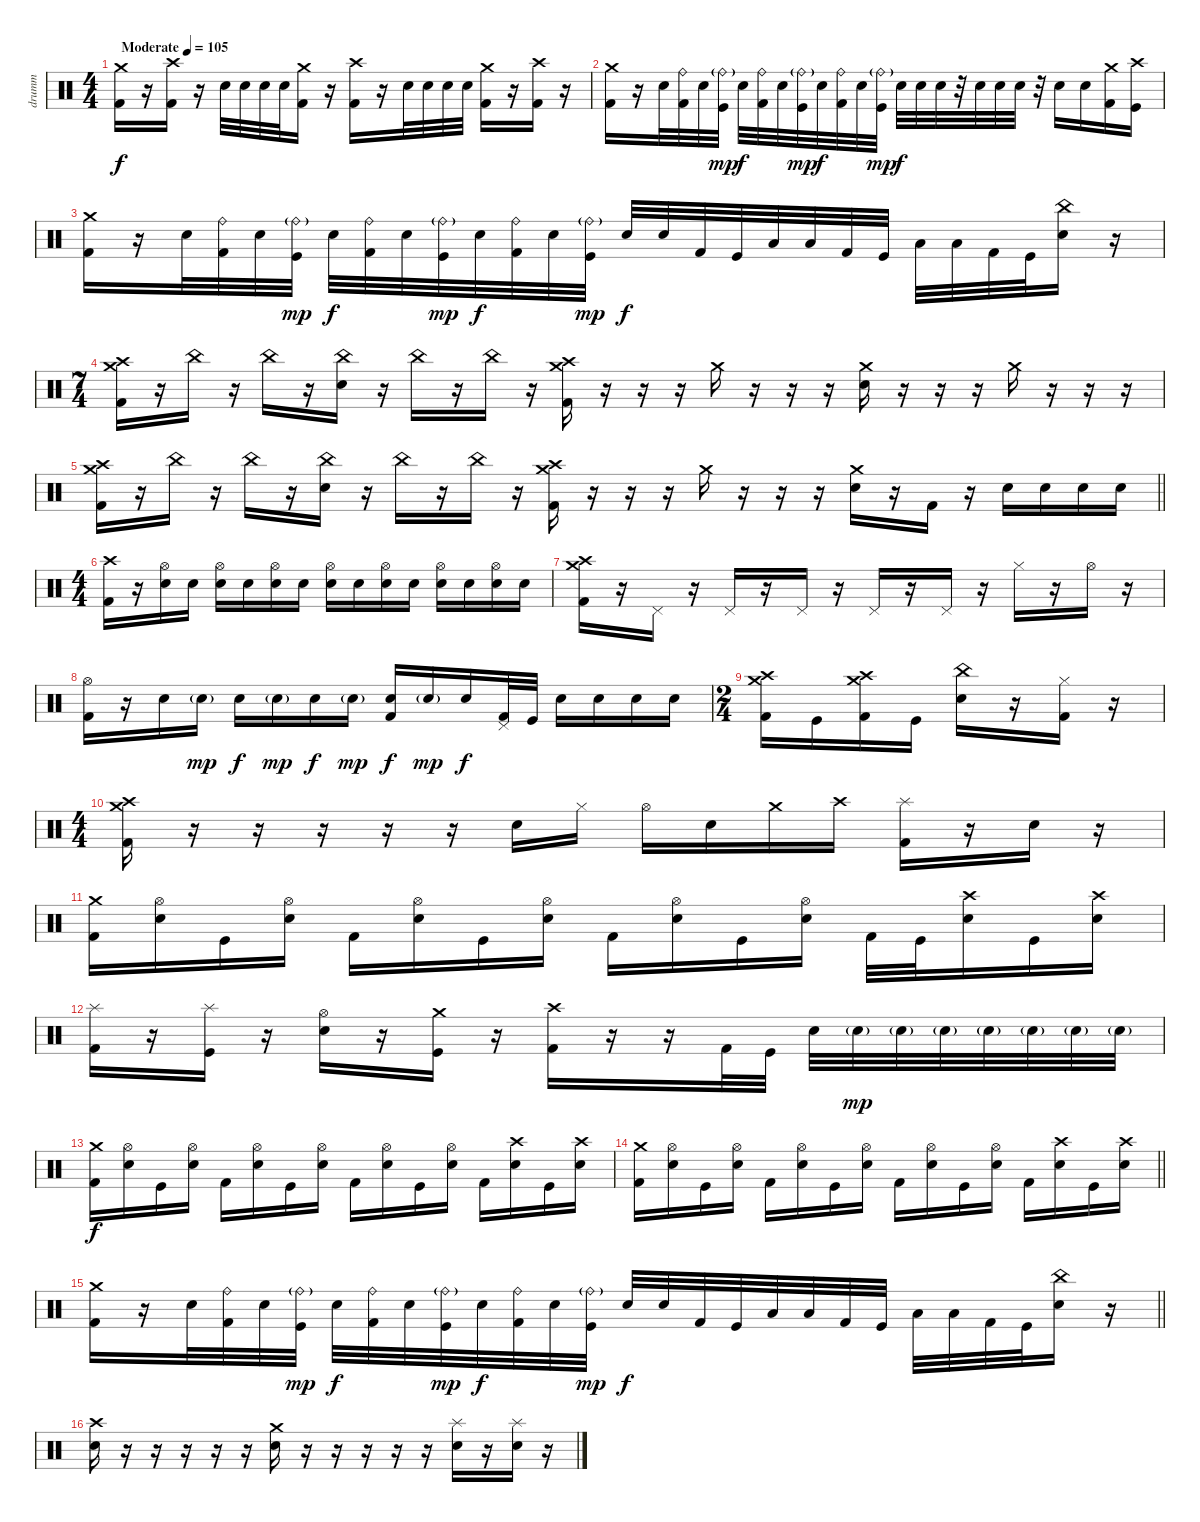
\track ("drumm" "drumm") {instrument percussion}
\staff
\articulation defaults
\ts (4 4)
\tempo (105 "Moderate")
\clef neutral
\ks c
("Kick (hit) 2" "Crash medium (hit)").16{dy f} r.16 ("Kick (hit) 2" "Crash high (hit)").16 r.16 "Electric Snare (hit)".32 "Electric Snare (hit)".32 "Electric Snare (hit)".32 "Electric Snare (hit)".32 ("Kick (hit) 2" "Crash medium (hit)").16 r.16 ("Kick (hit) 2" "Crash high (hit)").16 r.16 "Electric Snare (hit)".32 "Electric Snare (hit)".32 "Electric Snare (hit)".32 "Electric Snare (hit)".32 ("Kick (hit) 2" "Crash medium (hit)").16 r.16 ("Kick (hit) 2" "Crash high (hit)").16 r.16 |
("Kick (hit) 2" "Crash medium (hit)").16 r.16 "Electric Snare (hit)".32 ("Kick (hit) 2" "Ride (bell)").32 "Electric Snare (hit)".32 ("Kick (hit)" "Ride (bell)"{g}).32{dy mp} "Electric Snare (hit)".32{dy f} ("Kick (hit) 2" "Ride (bell)").32 "Electric Snare (hit)".32 ("Kick (hit)" "Ride (bell)"{g}).32{dy mp} "Electric Snare (hit)".32{dy f} ("Kick (hit) 2" "Ride (bell)").32 "Electric Snare (hit)".32 ("Kick (hit)" "Ride (bell)"{g}).32{dy mp} "Electric Snare (hit)".32{dy f} "Electric Snare (hit)".32 "Electric Snare (hit)".32 r.32 "Electric Snare (hit)".32 "Electric Snare (hit)".32 "Electric Snare (hit)".32 r.32 "Electric Snare (hit)".16 "Electric Snare (hit)".16 ("Kick (hit) 2" "Crash medium (hit)").16 ("Kick (hit)" "Crash high (hit)").16 |
("Kick (hit) 2" "Crash medium (hit)").16 r.16 "Electric Snare (hit)".32 ("Kick (hit) 2" "Ride (bell)").32 "Electric Snare (hit)".32 ("Kick (hit)" "Ride (bell)"{g}).32{dy mp} "Electric Snare (hit)".32{dy f} ("Kick (hit) 2" "Ride (bell)").32 "Electric Snare (hit)".32 ("Kick (hit)" "Ride (bell)"{g}).32{dy mp} "Electric Snare (hit)".32{dy f} ("Kick (hit) 2" "Ride (bell)").32 "Electric Snare (hit)".32 ("Kick (hit)" "Ride (bell)"{g}).32{dy mp} "Electric Snare (hit)".32{dy f} "Electric Snare (hit)".32 "Kick (hit) 2".32 "Kick (hit)".32 "Low Tom (hit)".32 "Low Tom (hit)".32 "Kick (hit) 2".32 "Kick (hit)".32 "Low Floor Tom (hit)".32 "Low Floor Tom (hit)".32 "Kick (hit) 2".32 "Kick (hit)".32 ("Electric Snare (hit)" "China (hit)").16 r.16 |
\ts (7 4)
("Kick (hit) 2" "Crash medium (hit)" "Crash high (hit)").16 r.16 "China (hit)".16 r.16 "China (hit)".16 r.16 ("Electric Snare (hit)" "China (hit)").16 r.16 "China (hit)".16 r.16 "China (hit)".16 r.16 ("Kick (hit) 2" "Crash medium (hit)" "Crash high (hit)").16 r.16 r.16 r.16 "Crash medium (hit)".16 r.16 r.16 r.16 ("Electric Snare (hit)" "Crash medium (hit)").16 r.16 r.16 r.16 "Crash medium (hit)".16 r.16 r.16 r.16 |
\barLineRight lightlight
("Kick (hit) 2" "Crash medium (hit)" "Crash high (hit)").16 r.16 "China (hit)".16 r.16 "China (hit)".16 r.16 ("Electric Snare (hit)" "China (hit)").16 r.16 "China (hit)".16 r.16 "China (hit)".16 r.16 ("Kick (hit) 2" "Crash medium (hit)" "Crash high (hit)").16 r.16 r.16 r.16 "Crash medium (hit)".16 r.16 r.16 r.16 ("Electric Snare (hit)" "Crash medium (hit)").16 r.16 "Kick (hit) 2".16 r.16 "Electric Snare (hit)".16 "Electric Snare (hit)".16 "Electric Snare (hit)".16 "Electric Snare (hit)".16 |
\ts (4 4)
\section ("" "")
("Kick (hit) 2" "Crash high (hit)").16 r.16 ("Electric Snare (hit)" "Hi-Hat (open)").16 "Electric Snare (hit)".16 ("Electric Snare (hit)" "Hi-Hat (open)").16 "Electric Snare (hit)".16 ("Electric Snare (hit)" "Hi-Hat (open)").16 "Electric Snare (hit)".16 ("Electric Snare (hit)" "Hi-Hat (open)").16 "Electric Snare (hit)".16 ("Electric Snare (hit)" "Hi-Hat (open)").16 "Electric Snare (hit)".16 ("Electric Snare (hit)" "Hi-Hat (open)").16 "Electric Snare (hit)".16 ("Electric Snare (hit)" "Hi-Hat (open)").16 "Electric Snare (hit)".16 |
("Kick (hit) 2" "Crash medium (hit)" "Crash high (hit)").16 r.16 "Pedal Hi-Hat (hit)".16 r.16 "Pedal Hi-Hat (hit)".16 r.16 "Pedal Hi-Hat (hit)".16 r.16 "Pedal Hi-Hat (hit)".16 r.16 "Pedal Hi-Hat (hit)".16 r.16 "Hi-Hat (closed)".16 r.16 "Hi-Hat (open)".16 r.16 |
("Kick (hit) 2" "Hi-Hat (open)").16 r.16 "Electric Snare (hit)".16 "Electric Snare (hit)"{g}.16{dy mp} "Electric Snare (hit)".16{dy f} "Electric Snare (hit)"{g}.16{dy mp} "Electric Snare (hit)".16{dy f} "Electric Snare (hit)"{g}.16{dy mp} ("Electric Snare (hit)" "Kick (hit) 2").16{dy f} "Electric Snare (hit)"{g}.16{dy mp} "Electric Snare (hit)".16{dy f} ("Kick (hit) 2" "Pedal Hi-Hat (hit)").32 "Kick (hit)".32 "Electric Snare (hit)".16 "Electric Snare (hit)".16 "Electric Snare (hit)".16 "Electric Snare (hit)".16 |
\ts (2 4)
("Kick (hit) 2" "Crash medium (hit)" "Crash high (hit)").16 "Kick (hit)".16 ("Kick (hit) 2" "Crash medium (hit)" "Crash high (hit)").16 "Kick (hit)".16 ("Electric Snare (hit)" "China (hit)").16 r.16 ("Kick (hit) 2" "Hi-Hat (closed)").16 r.16 |
\ts (4 4)
("Kick (hit) 2" "Crash medium (hit)" "Crash high (hit)").16 r.16 r.16 r.16 r.16 r.16 "Electric Snare (hit)".16 "Hi-Hat (closed)".16 "Hi-Hat (open)".16 "Electric Snare (hit)".16 "Crash medium (hit)".16 "Crash high (hit)".16 ("Kick (hit) 2" "Splash (hit)").16 r.16 "Electric Snare (hit)".16 r.16 |
("Kick (hit) 2" "Crash medium (hit)").16 ("Electric Snare (hit)" "Hi-Hat (open)").16 "Kick (hit)".16 ("Electric Snare (hit)" "Hi-Hat (open)").16 "Kick (hit) 2".16 ("Electric Snare (hit)" "Hi-Hat (open)").16 "Kick (hit)".16 ("Electric Snare (hit)" "Hi-Hat (open)").16 "Kick (hit) 2".16 ("Electric Snare (hit)" "Hi-Hat (open)").16 "Kick (hit)".16 ("Electric Snare (hit)" "Hi-Hat (open)").16 "Kick (hit) 2".32 "Kick (hit)".32 ("Electric Snare (hit)" "Crash high (hit)").16 "Kick (hit)".16 ("Electric Snare (hit)" "Crash high (hit)").16 |
("Kick (hit) 2" "Splash (hit)").16 r.16 ("Kick (hit)" "Splash (hit)").16 r.16 ("Electric Snare (hit)" "Hi-Hat (open)").16 r.16 ("Kick (hit)" "Crash medium (hit)").16 r.16 ("Kick (hit) 2" "Crash high (hit)").16 r.16 r.16 "Kick (hit) 2".32 "Kick (hit)".32 "Electric Snare (hit)".32 "Electric Snare (hit)"{g}.32{dy mp} "Electric Snare (hit)"{g}.32 "Electric Snare (hit)"{g}.32 "Electric Snare (hit)"{g}.32 "Electric Snare (hit)"{g}.32 "Electric Snare (hit)"{g}.32 "Electric Snare (hit)"{g}.32 |
("Kick (hit) 2" "Crash medium (hit)").16{dy f} ("Electric Snare (hit)" "Hi-Hat (open)").16 "Kick (hit)".16 ("Electric Snare (hit)" "Hi-Hat (open)").16 "Kick (hit) 2".16 ("Electric Snare (hit)" "Hi-Hat (open)").16 "Kick (hit)".16 ("Electric Snare (hit)" "Hi-Hat (open)").16 "Kick (hit) 2".16 ("Electric Snare (hit)" "Hi-Hat (open)").16 "Kick (hit)".16 ("Electric Snare (hit)" "Hi-Hat (open)").16 "Kick (hit) 2".16 ("Electric Snare (hit)" "Crash high (hit)").16 "Kick (hit)".16 ("Electric Snare (hit)" "Crash high (hit)").16 |
\barLineRight lightlight
("Kick (hit) 2" "Crash medium (hit)").16 ("Electric Snare (hit)" "Hi-Hat (open)").16 "Kick (hit)".16 ("Electric Snare (hit)" "Hi-Hat (open)").16 "Kick (hit) 2".16 ("Electric Snare (hit)" "Hi-Hat (open)").16 "Kick (hit)".16 ("Electric Snare (hit)" "Hi-Hat (open)").16 "Kick (hit) 2".16 ("Electric Snare (hit)" "Hi-Hat (open)").16 "Kick (hit)".16 ("Electric Snare (hit)" "Hi-Hat (open)").16 "Kick (hit) 2".16 ("Electric Snare (hit)" "Crash high (hit)").16 "Kick (hit)".16 ("Electric Snare (hit)" "Crash high (hit)").16 |
\section ("" "")
\barLineRight lightlight
("Kick (hit) 2" "Crash medium (hit)").16 r.16 "Electric Snare (hit)".32 ("Kick (hit) 2" "Ride (bell)").32 "Electric Snare (hit)".32 ("Kick (hit)" "Ride (bell)"{g}).32{dy mp} "Electric Snare (hit)".32{dy f} ("Kick (hit) 2" "Ride (bell)").32 "Electric Snare (hit)".32 ("Kick (hit)" "Ride (bell)"{g}).32{dy mp} "Electric Snare (hit)".32{dy f} ("Kick (hit) 2" "Ride (bell)").32 "Electric Snare (hit)".32 ("Kick (hit)" "Ride (bell)"{g}).32{dy mp} "Electric Snare (hit)".32{dy f} "Electric Snare (hit)".32 "Kick (hit) 2".32 "Kick (hit)".32 "Low Tom (hit)".32 "Low Tom (hit)".32 "Kick (hit) 2".32 "Kick (hit)".32 "Low Floor Tom (hit)".32 "Low Floor Tom (hit)".32 "Kick (hit) 2".32 "Kick (hit)".32 ("Electric Snare (hit)" "China (hit)").16 r.16 |
("Electric Snare (hit)" "Crash high (hit)").16 r.16 r.16 r.16 r.16 r.16 ("Electric Snare (hit)" "Crash medium (hit)").16 r.16 r.16 r.16 r.16 r.16 ("Electric Snare (hit)" "Splash (hit)").16 r.16 ("Electric Snare (hit)" "Splash (hit)").16 r.16
